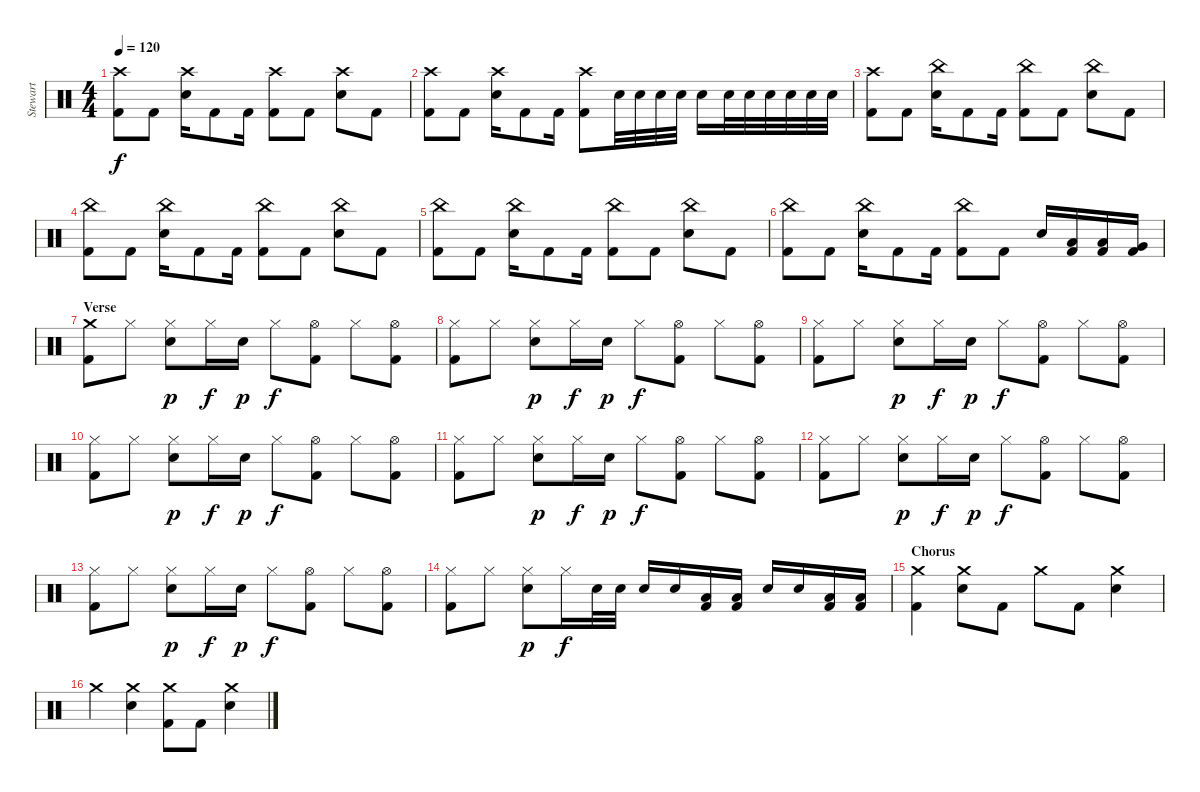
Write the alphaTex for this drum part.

\track ("Stewart" "Stewart") {instrument percussion}
\staff {score}
\articulation defaults
\ts (4 4)
\tempo 120
\clef neutral
\ks c
("Kick (hit) 2" "Crash high (hit)").8{dy f} "Kick (hit) 2".8 ("Electric Snare (hit)" "Crash high (hit)").16 "Kick (hit) 2".8 "Kick (hit) 2".16 ("Kick (hit) 2" "Crash high (hit)").8 "Kick (hit) 2".8 ("Electric Snare (hit)" "Crash high (hit)").8 "Kick (hit) 2".8 |
("Kick (hit) 2" "Crash high (hit)").8 "Kick (hit) 2".8 ("Electric Snare (hit)" "Crash high (hit)").16 "Kick (hit) 2".8 "Kick (hit) 2".16 ("Crash high (hit)" "Kick (hit) 2").8 "Electric Snare (hit)".32 "Electric Snare (hit)".32 "Electric Snare (hit)".32 "Electric Snare (hit)".32 "Electric Snare (hit)".16 "Electric Snare (hit)".32 "Electric Snare (hit)".32 "Electric Snare (hit)".32 "Electric Snare (hit)".32 "Electric Snare (hit)".32 "Electric Snare (hit)".32 |
("Kick (hit) 2" "Crash high (hit)").8 "Kick (hit) 2".8 ("Electric Snare (hit)" "China (hit)").16 "Kick (hit) 2".8 "Kick (hit) 2".16 ("Kick (hit) 2" "China (hit)").8 "Kick (hit) 2".8 ("Electric Snare (hit)" "China (hit)").8 "Kick (hit) 2".8 |
("Kick (hit) 2" "China (hit)").8 "Kick (hit) 2".8 ("Electric Snare (hit)" "China (hit)").16 "Kick (hit) 2".8 "Kick (hit) 2".16 ("Kick (hit) 2" "China (hit)").8 "Kick (hit) 2".8 ("Electric Snare (hit)" "China (hit)").8 "Kick (hit) 2".8 |
("Kick (hit) 2" "China (hit)").8 "Kick (hit) 2".8 ("Electric Snare (hit)" "China (hit)").16 "Kick (hit) 2".8 "Kick (hit) 2".16 ("Kick (hit) 2" "China (hit)").8 "Kick (hit) 2".8 ("Electric Snare (hit)" "China (hit)").8 "Kick (hit) 2".8 |
("Kick (hit) 2" "China (hit)").8 "Kick (hit) 2".8 ("Electric Snare (hit)" "China (hit)").16 "Kick (hit) 2".8 "Kick (hit) 2".16 ("Kick (hit) 2" "China (hit)").8 "Kick (hit) 2".8 "Electric Snare (hit)".16 ("Low Tom (hit)" "Kick (hit) 2").16 ("Low Tom (hit)" "Kick (hit) 2").16 ("Very Low Tom (hit)" "Kick (hit) 2").16 |
\section ("" "Verse")
("Crash medium (hit)" "Kick (hit) 2").8 "Hi-Hat (closed)".8 ("Hi-Hat (closed)" "Electric Snare (hit)").8{dy p} "Hi-Hat (closed)".16{dy f} "Electric Snare (hit)".16{dy p} "Hi-Hat (closed)".8{dy f} ("Hi-Hat (open)" "Kick (hit) 2").8 "Hi-Hat (closed)".8 ("Hi-Hat (open)" "Kick (hit) 2").8 |
("Hi-Hat (closed)" "Kick (hit) 2").8 "Hi-Hat (closed)".8 ("Hi-Hat (closed)" "Electric Snare (hit)").8{dy p} "Hi-Hat (closed)".16{dy f} "Electric Snare (hit)".16{dy p} "Hi-Hat (closed)".8{dy f} ("Hi-Hat (open)" "Kick (hit) 2").8 "Hi-Hat (closed)".8 ("Hi-Hat (open)" "Kick (hit) 2").8 |
("Hi-Hat (closed)" "Kick (hit) 2").8 "Hi-Hat (closed)".8 ("Hi-Hat (closed)" "Electric Snare (hit)").8{dy p} "Hi-Hat (closed)".16{dy f} "Electric Snare (hit)".16{dy p} "Hi-Hat (closed)".8{dy f} ("Hi-Hat (open)" "Kick (hit) 2").8 "Hi-Hat (closed)".8 ("Hi-Hat (open)" "Kick (hit) 2").8 |
("Hi-Hat (closed)" "Kick (hit) 2").8 "Hi-Hat (closed)".8 ("Hi-Hat (closed)" "Electric Snare (hit)").8{dy p} "Hi-Hat (closed)".16{dy f} "Electric Snare (hit)".16{dy p} "Hi-Hat (closed)".8{dy f} ("Hi-Hat (open)" "Kick (hit) 2").8 "Hi-Hat (closed)".8 ("Hi-Hat (open)" "Kick (hit) 2").8 |
("Hi-Hat (closed)" "Kick (hit) 2").8 "Hi-Hat (closed)".8 ("Hi-Hat (closed)" "Electric Snare (hit)").8{dy p} "Hi-Hat (closed)".16{dy f} "Electric Snare (hit)".16{dy p} "Hi-Hat (closed)".8{dy f} ("Hi-Hat (open)" "Kick (hit) 2").8 "Hi-Hat (closed)".8 ("Hi-Hat (open)" "Kick (hit) 2").8 |
("Hi-Hat (closed)" "Kick (hit) 2").8 "Hi-Hat (closed)".8 ("Hi-Hat (closed)" "Electric Snare (hit)").8{dy p} "Hi-Hat (closed)".16{dy f} "Electric Snare (hit)".16{dy p} "Hi-Hat (closed)".8{dy f} ("Hi-Hat (open)" "Kick (hit) 2").8 "Hi-Hat (closed)".8 ("Hi-Hat (open)" "Kick (hit) 2").8 |
("Hi-Hat (closed)" "Kick (hit) 2").8 "Hi-Hat (closed)".8 ("Hi-Hat (closed)" "Electric Snare (hit)").8{dy p} "Hi-Hat (closed)".16{dy f} "Electric Snare (hit)".16{dy p} "Hi-Hat (closed)".8{dy f} ("Hi-Hat (open)" "Kick (hit) 2").8 "Hi-Hat (closed)".8 ("Hi-Hat (open)" "Kick (hit) 2").8 |
("Hi-Hat (closed)" "Kick (hit) 2").8 "Hi-Hat (closed)".8 ("Hi-Hat (closed)" "Electric Snare (hit)").8{dy p} "Hi-Hat (closed)".16{dy f} "Electric Snare (hit)".32 "Electric Snare (hit)".32 "Electric Snare (hit)".16 "Electric Snare (hit)".16 ("Low Tom (hit)" "Kick (hit) 2").16 ("Low Tom (hit)" "Kick (hit) 2").16 "Electric Snare (hit)".16 "Electric Snare (hit)".16 ("Low Tom (hit)" "Kick (hit) 2").16 ("Low Tom (hit)" "Kick (hit) 2").16 |
\section ("" "Chorus")
("Crash medium (hit)" "Kick (hit) 2").4 ("Crash medium (hit)" "Electric Snare (hit)").8 "Kick (hit) 2".8 "Crash medium (hit)".8 "Kick (hit) 2".8 ("Crash medium (hit)" "Electric Snare (hit)").4 |
"Crash medium (hit)".4 ("Crash medium (hit)" "Electric Snare (hit)").4 ("Crash medium (hit)" "Kick (hit) 2").8 "Kick (hit) 2".8 ("Crash medium (hit)" "Electric Snare (hit)").4
